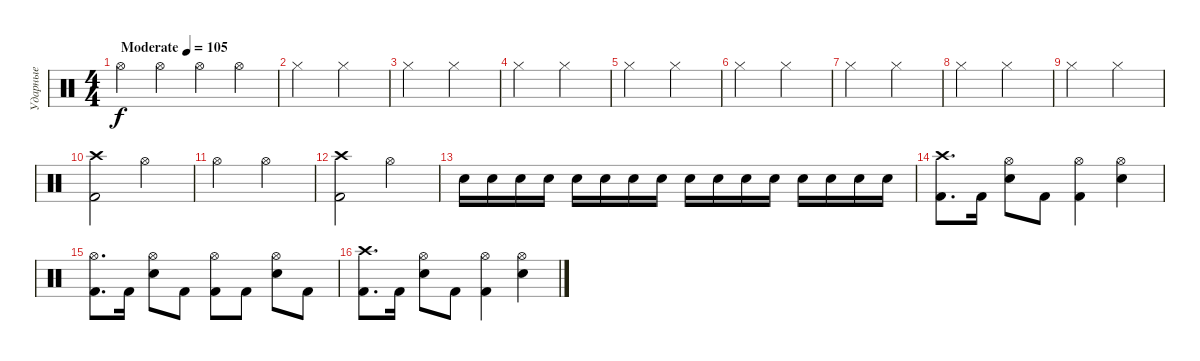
\track ("Ударные" "Ударные") {instrument percussion}
\staff {score}
\articulation defaults
\ts (4 4)
\tempo (105 "Moderate")
\clef neutral
\ks c "Hi-Hat (open)".4{dy f} "Hi-Hat (open)".4 "Hi-Hat (open)".4 "Hi-Hat (open)".4
|
"Hi-Hat (closed)".2 "Hi-Hat (closed)".2 |
"Hi-Hat (closed)".2 "Hi-Hat (closed)".2 |
"Hi-Hat (closed)".2 "Hi-Hat (closed)".2 |
"Hi-Hat (closed)".2 "Hi-Hat (closed)".2 |
"Hi-Hat (closed)".2 "Hi-Hat (closed)".2 |
"Hi-Hat (closed)".2 "Hi-Hat (closed)".2 |
"Hi-Hat (closed)".2 "Hi-Hat (closed)".2 |
"Hi-Hat (closed)".2 "Hi-Hat (closed)".2 |
("Kick (hit) 2" "Crash high (hit)").2 "Hi-Hat (open)".2 |
"Hi-Hat (open)".2 "Hi-Hat (open)".2 |
("Kick (hit) 2" "Crash high (hit)").2 "Hi-Hat (open)".2 |
"Snare (hit) 2".16 "Snare (hit) 2".16 "Snare (hit) 2".16 "Snare (hit) 2".16 "Snare (hit) 2".16 "Snare (hit) 2".16 "Snare (hit) 2".16 "Snare (hit) 2".16 "Snare (hit) 2".16 "Snare (hit) 2".16 "Snare (hit) 2".16 "Snare (hit) 2".16 "Snare (hit) 2".16 "Snare (hit) 2".16 "Snare (hit) 2".16 "Snare (hit) 2".16 |
("Kick (hit) 2" "Crash high (hit)").8{d} "Kick (hit) 2".16 ("Snare (hit) 2" "Hi-Hat (open)").8 "Kick (hit) 2".8 ("Kick (hit) 2" "Hi-Hat (open)").4 ("Snare (hit) 2" "Hi-Hat (open)").4 |
("Kick (hit) 2" "Hi-Hat (open)").8{d} "Kick (hit) 2".16 ("Snare (hit) 2" "Hi-Hat (open)").8 "Kick (hit) 2".8 ("Kick (hit) 2" "Hi-Hat (open)").8 "Kick (hit) 2".8 ("Snare (hit) 2" "Hi-Hat (open)").8 "Kick (hit) 2".8 |
("Kick (hit) 2" "Crash high (hit)").8{d} "Kick (hit) 2".16 ("Snare (hit) 2" "Hi-Hat (open)").8 "Kick (hit) 2".8 ("Kick (hit) 2" "Hi-Hat (open)").4 ("Snare (hit) 2" "Hi-Hat (open)").4
